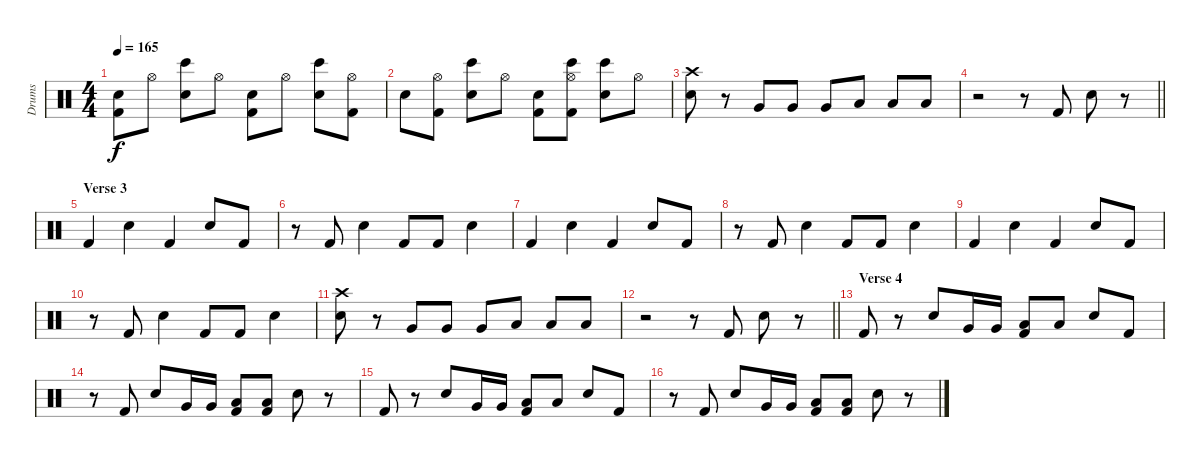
\track ("Drums" "Drums") {instrument percussion}
\staff {score}
\articulation defaults
\ts (4 4)
\tempo 165
\clef neutral
\ks c
("Kick (hit) 2" "Electric Snare (hit)").8{dy f} "Hi-Hat (open)".8 ("Electric Snare (hit)" "Bongo High (hit)").8 "Hi-Hat (open)".8 ("Kick (hit) 2" "Electric Snare (hit)").8 "Hi-Hat (open)".8 ("Electric Snare (hit)" "Bongo High (hit)").8 ("Hi-Hat (open)" "Kick (hit) 2").8 |
"Electric Snare (hit)".8 ("Hi-Hat (open)" "Kick (hit) 2").8 ("Electric Snare (hit)" "Bongo High (hit)").8 "Hi-Hat (open)".8 ("Kick (hit) 2" "Electric Snare (hit)").8 ("Hi-Hat (open)" "Kick (hit) 2" "Bongo High (hit)").8 ("Electric Snare (hit)" "Bongo High (hit)").8 "Hi-Hat (open)".8 |
("Crash high (hit)" "Electric Snare (hit)").8 r.8 "Very Low Tom (hit)".8 "Very Low Tom (hit)".8 "Very Low Tom (hit)".8 "Low Floor Tom (hit)".8 "Low Floor Tom (hit)".8 "Low Floor Tom (hit)".8 |
\barLineRight lightlight
r.2 r.8 "Kick (hit) 2".8 "Electric Snare (hit)".8 r.8 |
\section ("" "Verse 3")
"Kick (hit) 2".4 "Electric Snare (hit)".4 "Kick (hit) 2".4 "Electric Snare (hit)".8 "Kick (hit) 2".8 |
r.8 "Kick (hit) 2".8 "Electric Snare (hit)".4 "Kick (hit) 2".8 "Kick (hit) 2".8 "Electric Snare (hit)".4 |
"Kick (hit) 2".4 "Electric Snare (hit)".4 "Kick (hit) 2".4 "Electric Snare (hit)".8 "Kick (hit) 2".8 |
r.8 "Kick (hit) 2".8 "Electric Snare (hit)".4 "Kick (hit) 2".8 "Kick (hit) 2".8 "Electric Snare (hit)".4 |
"Kick (hit) 2".4 "Electric Snare (hit)".4 "Kick (hit) 2".4 "Electric Snare (hit)".8 "Kick (hit) 2".8 |
r.8 "Kick (hit) 2".8 "Electric Snare (hit)".4 "Kick (hit) 2".8 "Kick (hit) 2".8 "Electric Snare (hit)".4 |
("Crash high (hit)" "Electric Snare (hit)").8 r.8 "Very Low Tom (hit)".8 "Very Low Tom (hit)".8 "Very Low Tom (hit)".8 "Low Floor Tom (hit)".8 "Low Floor Tom (hit)".8 "Low Floor Tom (hit)".8 |
\barLineRight lightlight
r.2 r.8 "Kick (hit) 2".8 "Electric Snare (hit)".8 r.8 |
\section ("" "Verse 4")
"Kick (hit) 2".8 r.8 "Electric Snare (hit)".8 "Very Low Tom (hit)".16 "Very Low Tom (hit)".16 ("Kick (hit) 2" "Low Floor Tom (hit)").8 "Low Floor Tom (hit)".8 "Electric Snare (hit)".8 "Kick (hit) 2".8 |
r.8 "Kick (hit) 2".8 "Electric Snare (hit)".8 "Very Low Tom (hit)".16 "Very Low Tom (hit)".16 ("Kick (hit) 2" "Low Floor Tom (hit)").8 ("Kick (hit) 2" "Low Floor Tom (hit)").8 "Electric Snare (hit)".8 r.8 |
"Kick (hit) 2".8 r.8 "Electric Snare (hit)".8 "Very Low Tom (hit)".16 "Very Low Tom (hit)".16 ("Kick (hit) 2" "Low Floor Tom (hit)").8 "Low Floor Tom (hit)".8 "Electric Snare (hit)".8 "Kick (hit) 2".8 |
r.8 "Kick (hit) 2".8 "Electric Snare (hit)".8 "Very Low Tom (hit)".16 "Very Low Tom (hit)".16 ("Kick (hit) 2" "Low Floor Tom (hit)").8 ("Kick (hit) 2" "Low Floor Tom (hit)").8 "Electric Snare (hit)".8 r.8
